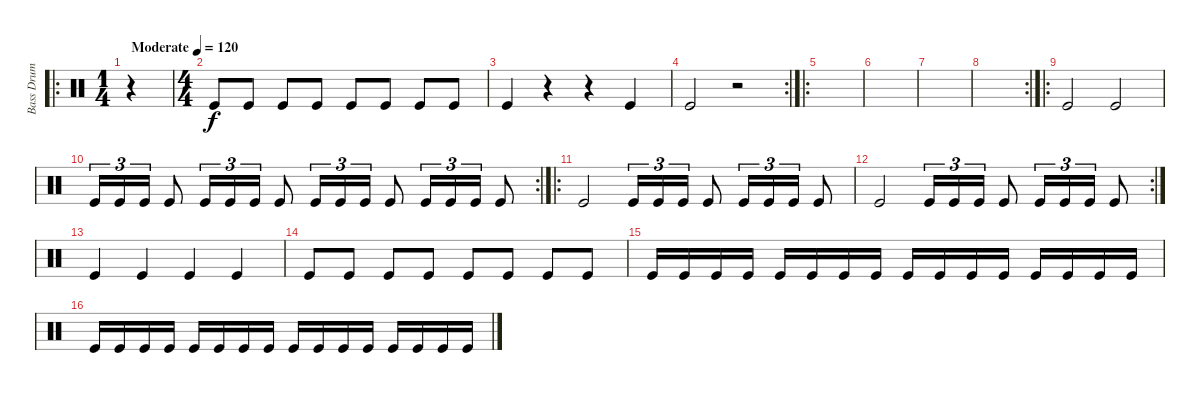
\track ("Bass Drum" "Bass Drum") {instrument percussion}
\staff {score}
\articulation defaults
\ro
\ts (1 4)
\tempo (120 "Moderate")
\clef neutral
\ks c
r.4{dy f volume 6} |
\ts (4 4)
"Kick (hit)".8{volume 13} "Kick (hit)".8 "Kick (hit)".8 "Kick (hit)".8 "Kick (hit)".8 "Kick (hit)".8 "Kick (hit)".8 "Kick (hit)".8 |
"Kick (hit)".4 r.4 r.4 "Kick (hit)".4 |
\rc 2 "Kick (hit)".2
r.2 |
\ro
|
|
|
\rc 2
|
\ro "Kick (hit)".2 "Kick (hit)".2
|
\rc 2 "Kick (hit)".16{tu (3 2)} "Kick (hit)".16{tu (3 2)} "Kick (hit)".16{tu (3 2)} "Kick (hit)".8 "Kick (hit)".16{tu (3 2)} "Kick (hit)".16{tu (3 2)} "Kick (hit)".16{tu (3 2)} "Kick (hit)".8 "Kick (hit)".16{tu (3 2)} "Kick (hit)".16{tu (3 2)} "Kick (hit)".16{tu (3 2)} "Kick (hit)".8 "Kick (hit)".16{tu (3 2)} "Kick (hit)".16{tu (3 2)} "Kick (hit)".16{tu (3 2)} "Kick (hit)".8
|
\ro "Kick (hit)".2 "Kick (hit)".16{tu (3 2)} "Kick (hit)".16{tu (3 2)} "Kick (hit)".16{tu (3 2)} "Kick (hit)".8 "Kick (hit)".16{tu (3 2)} "Kick (hit)".16{tu (3 2)} "Kick (hit)".16{tu (3 2)} "Kick (hit)".8
|
\rc 2 "Kick (hit)".2 "Kick (hit)".16{tu (3 2)} "Kick (hit)".16{tu (3 2)} "Kick (hit)".16{tu (3 2)} "Kick (hit)".8 "Kick (hit)".16{tu (3 2)} "Kick (hit)".16{tu (3 2)} "Kick (hit)".16{tu (3 2)} "Kick (hit)".8
|
"Kick (hit)".4 "Kick (hit)".4 "Kick (hit)".4 "Kick (hit)".4 |
"Kick (hit)".8 "Kick (hit)".8 "Kick (hit)".8 "Kick (hit)".8 "Kick (hit)".8 "Kick (hit)".8 "Kick (hit)".8 "Kick (hit)".8 |
"Kick (hit)".16 "Kick (hit)".16 "Kick (hit)".16 "Kick (hit)".16 "Kick (hit)".16 "Kick (hit)".16 "Kick (hit)".16 "Kick (hit)".16 "Kick (hit)".16 "Kick (hit)".16 "Kick (hit)".16 "Kick (hit)".16 "Kick (hit)".16 "Kick (hit)".16 "Kick (hit)".16 "Kick (hit)".16 |
"Kick (hit)".16 "Kick (hit)".16 "Kick (hit)".16 "Kick (hit)".16 "Kick (hit)".16 "Kick (hit)".16 "Kick (hit)".16 "Kick (hit)".16 "Kick (hit)".16 "Kick (hit)".16 "Kick (hit)".16 "Kick (hit)".16 "Kick (hit)".16 "Kick (hit)".16 "Kick (hit)".16 "Kick (hit)".16
